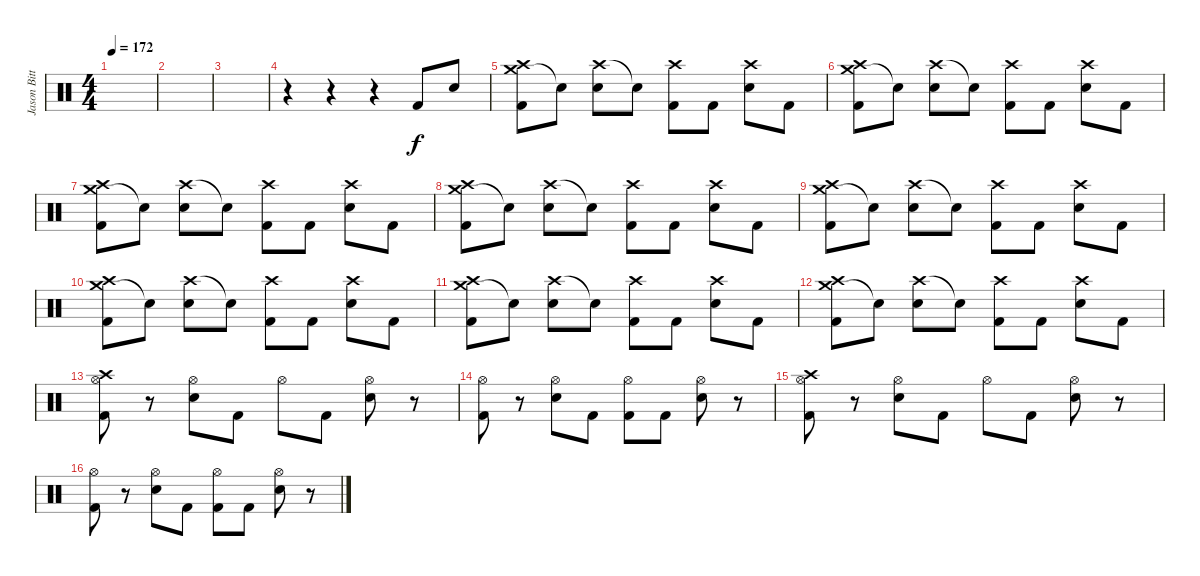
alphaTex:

\track ("Jason Bittner" "Jason Bitt") {instrument percussion}
\staff {score}
\articulation defaults
\ts (4 4)
\tempo 172
\clef neutral
\ks c
|
|
|
r.4 r.4 r.4 "Kick (hit) 2".8 "Electric Snare (hit)".8 |
("Crash medium (hit)" "Crash high (hit)" "Kick (hit) 2").8 "Snare (hit)"{t}.8 ("Crash high (hit)" "Electric Snare (hit)").8 "Snare (hit)"{t}.8 ("Crash high (hit)" "Kick (hit) 2").8 "Kick (hit) 2".8 ("Crash high (hit)" "Electric Snare (hit)").8 "Kick (hit) 2".8 |
("Crash medium (hit)" "Crash high (hit)" "Kick (hit) 2").8 "Snare (hit)"{t}.8 ("Crash high (hit)" "Electric Snare (hit)").8 "Snare (hit)"{t}.8 ("Crash high (hit)" "Kick (hit) 2").8 "Kick (hit) 2".8 ("Crash high (hit)" "Electric Snare (hit)").8 "Kick (hit) 2".8 |
("Crash medium (hit)" "Crash high (hit)" "Kick (hit) 2").8 "Snare (hit)"{t}.8 ("Crash high (hit)" "Electric Snare (hit)").8 "Snare (hit)"{t}.8 ("Crash high (hit)" "Kick (hit) 2").8 "Kick (hit) 2".8 ("Crash high (hit)" "Electric Snare (hit)").8 "Kick (hit) 2".8 |
("Crash medium (hit)" "Crash high (hit)" "Kick (hit) 2").8 "Snare (hit)"{t}.8 ("Crash high (hit)" "Electric Snare (hit)").8 "Snare (hit)"{t}.8 ("Crash high (hit)" "Kick (hit) 2").8 "Kick (hit) 2".8 ("Crash high (hit)" "Electric Snare (hit)").8 "Kick (hit) 2".8 |
("Crash medium (hit)" "Crash high (hit)" "Kick (hit) 2").8 "Snare (hit)"{t}.8 ("Crash high (hit)" "Electric Snare (hit)").8 "Snare (hit)"{t}.8 ("Crash high (hit)" "Kick (hit) 2").8 "Kick (hit) 2".8 ("Crash high (hit)" "Electric Snare (hit)").8 "Kick (hit) 2".8 |
("Crash medium (hit)" "Crash high (hit)" "Kick (hit) 2").8 "Snare (hit)"{t}.8 ("Crash high (hit)" "Electric Snare (hit)").8 "Snare (hit)"{t}.8 ("Crash high (hit)" "Kick (hit) 2").8 "Kick (hit) 2".8 ("Crash high (hit)" "Electric Snare (hit)").8 "Kick (hit) 2".8 |
("Crash medium (hit)" "Crash high (hit)" "Kick (hit) 2").8 "Snare (hit)"{t}.8 ("Crash high (hit)" "Electric Snare (hit)").8 "Snare (hit)"{t}.8 ("Crash high (hit)" "Kick (hit) 2").8 "Kick (hit) 2".8 ("Crash high (hit)" "Electric Snare (hit)").8 "Kick (hit) 2".8 |
("Crash medium (hit)" "Crash high (hit)" "Kick (hit) 2").8 "Snare (hit)"{t}.8 ("Crash high (hit)" "Electric Snare (hit)").8 "Snare (hit)"{t}.8 ("Crash high (hit)" "Kick (hit) 2").8 "Kick (hit) 2".8 ("Crash high (hit)" "Electric Snare (hit)").8 "Kick (hit) 2".8 |
("Crash high (hit)" "Hi-Hat (open)" "Kick (hit) 2").8 r.8 ("Hi-Hat (open)" "Electric Snare (hit)").8 "Kick (hit) 2".8 "Hi-Hat (open)".8 "Kick (hit) 2".8 ("Hi-Hat (open)" "Electric Snare (hit)").8 r.8 |
("Hi-Hat (open)" "Kick (hit) 2").8 r.8 ("Hi-Hat (open)" "Electric Snare (hit)").8 "Kick (hit) 2".8 ("Hi-Hat (open)" "Kick (hit) 2").8 "Kick (hit) 2".8 ("Hi-Hat (open)" "Electric Snare (hit)").8 r.8 |
("Crash high (hit)" "Hi-Hat (open)" "Kick (hit) 2").8 r.8 ("Hi-Hat (open)" "Electric Snare (hit)").8 "Kick (hit) 2".8 "Hi-Hat (open)".8 "Kick (hit) 2".8 ("Hi-Hat (open)" "Electric Snare (hit)").8 r.8 |
("Hi-Hat (open)" "Kick (hit) 2").8 r.8 ("Hi-Hat (open)" "Electric Snare (hit)").8 "Kick (hit) 2".8 ("Hi-Hat (open)" "Kick (hit) 2").8 "Kick (hit) 2".8 ("Hi-Hat (open)" "Electric Snare (hit)").8 r.8
